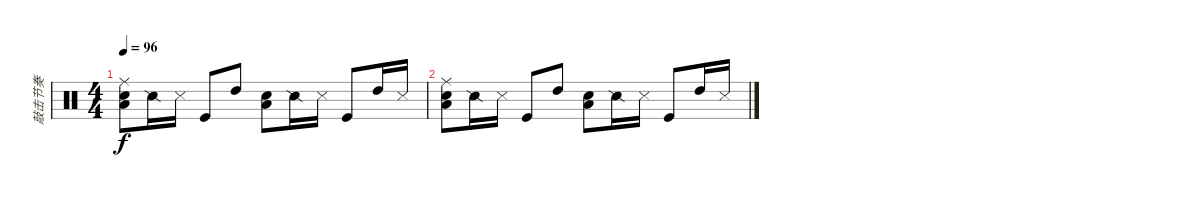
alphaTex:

\track ("敲击节奏" "敲击节奏") {instrument percussion}
\staff {score}
\articulation defaults
\ts (4 4)
\tempo 96
\clef neutral
\ks c
("Low Floor Tom (hit)" "Electric Snare (hit)" "Ride (middle)").8{dy f} "Snare (side stick) 2".16 "Metronome (hit)".16 "Kick (hit)".8 "High Tom (hit)".8 ("Low Floor Tom (hit)" "Electric Snare (hit)").8 "Snare (side stick) 2".16 "Metronome (hit)".16 "Kick (hit)".8 "High Tom (hit)".16 "Metronome (hit)".16 |
("Low Floor Tom (hit)" "Electric Snare (hit)" "Ride (middle)").8 "Snare (side stick) 2".16 "Metronome (hit)".16 "Kick (hit)".8 "High Tom (hit)".8 ("Low Floor Tom (hit)" "Electric Snare (hit)").8 "Snare (side stick) 2".16 "Metronome (hit)".16 "Kick (hit)".8 "High Tom (hit)".16 "Metronome (hit)".16
